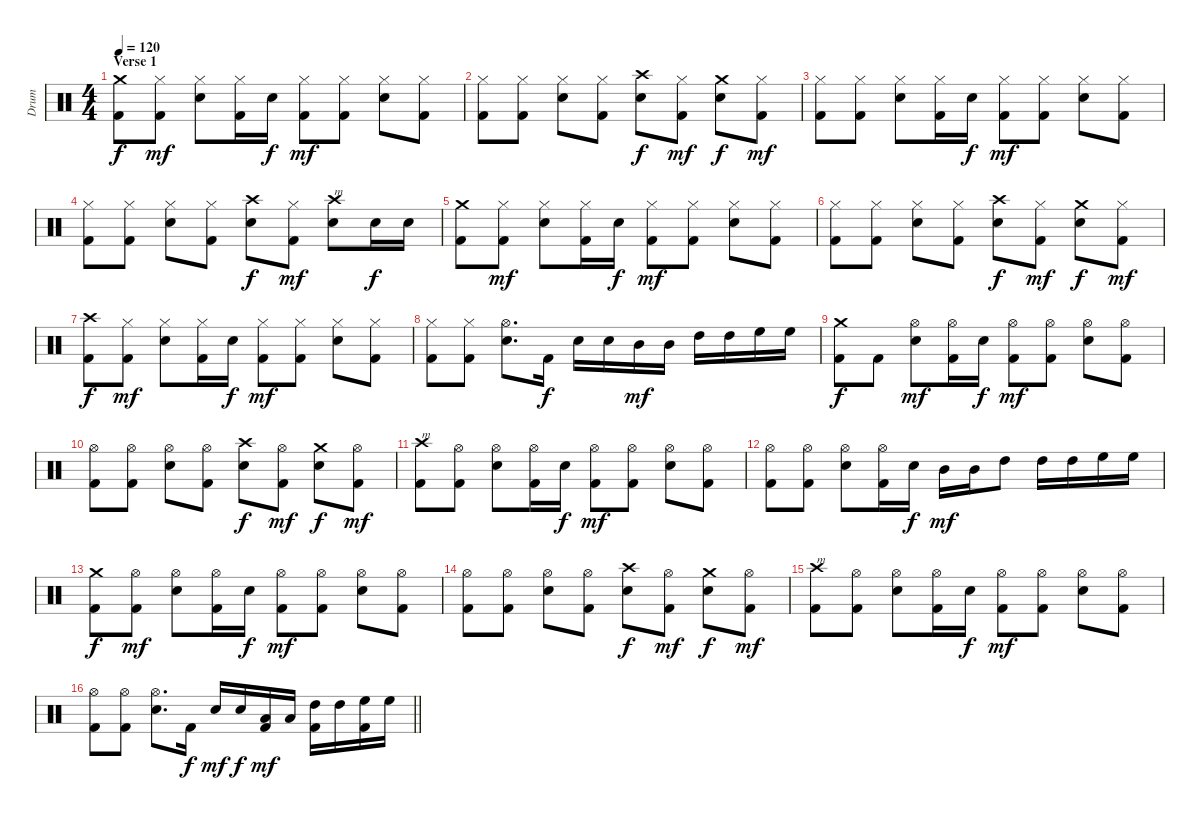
\track ("Drum" "Drum") {instrument percussion}
\staff {score}
\articulation defaults
\ts (4 4)
\section ("" "Verse 1")
\tempo 120
\clef neutral
\ks c
("Crash medium (hit)" "Kick (hit) 2").8{dy f} ("Hi-Hat (closed)" "Kick (hit) 2").8{dy mf} ("Hi-Hat (closed)" "Snare (hit) 2").8 ("Hi-Hat (closed)" "Kick (hit) 2").16 "Snare (hit) 2".16{dy f} ("Hi-Hat (closed)" "Kick (hit) 2").8{dy mf} ("Hi-Hat (closed)" "Kick (hit) 2").8 ("Hi-Hat (closed)" "Snare (hit) 2").8 ("Hi-Hat (closed)" "Kick (hit) 2").8 |
("Hi-Hat (closed)" "Kick (hit) 2").8 ("Hi-Hat (closed)" "Kick (hit) 2").8 ("Hi-Hat (closed)" "Snare (hit) 2").8 ("Hi-Hat (closed)" "Kick (hit) 2").8 ("Crash high (hit)" "Snare (hit) 2").8{dy f} ("Hi-Hat (closed)" "Kick (hit) 2").8{dy mf} ("Crash medium (hit)" "Snare (hit) 2").8{dy f} ("Hi-Hat (closed)" "Kick (hit) 2").8{dy mf} |
("Hi-Hat (closed)" "Kick (hit) 2").8 ("Hi-Hat (closed)" "Kick (hit) 2").8 ("Hi-Hat (closed)" "Snare (hit) 2").8 ("Hi-Hat (closed)" "Kick (hit) 2").16 "Snare (hit) 2".16{dy f} ("Hi-Hat (closed)" "Kick (hit) 2").8{dy mf} ("Hi-Hat (closed)" "Kick (hit) 2").8 ("Hi-Hat (closed)" "Snare (hit) 2").8 ("Hi-Hat (closed)" "Kick (hit) 2").8 |
("Hi-Hat (closed)" "Kick (hit) 2").8 ("Hi-Hat (closed)" "Kick (hit) 2").8 ("Hi-Hat (closed)" "Snare (hit) 2").8 ("Hi-Hat (closed)" "Kick (hit) 2").8 ("Crash high (hit)" "Snare (hit) 2").8{dy f} ("Hi-Hat (closed)" "Kick (hit) 2").8{dy mf} ("Crash high (hit)" "Snare (hit) 2").8{txt "m"} "Snare (hit) 2".16{dy f} "Snare (hit) 2".16 |
("Crash medium (hit)" "Kick (hit) 2").8 ("Hi-Hat (closed)" "Kick (hit) 2").8{dy mf} ("Hi-Hat (closed)" "Snare (hit) 2").8 ("Hi-Hat (closed)" "Kick (hit) 2").16 "Snare (hit) 2".16{dy f} ("Hi-Hat (closed)" "Kick (hit) 2").8{dy mf} ("Hi-Hat (closed)" "Kick (hit) 2").8 ("Hi-Hat (closed)" "Snare (hit) 2").8 ("Hi-Hat (closed)" "Kick (hit) 2").8 |
("Hi-Hat (closed)" "Kick (hit) 2").8 ("Hi-Hat (closed)" "Kick (hit) 2").8 ("Hi-Hat (closed)" "Snare (hit) 2").8 ("Hi-Hat (closed)" "Kick (hit) 2").8 ("Crash high (hit)" "Snare (hit) 2").8{dy f} ("Hi-Hat (closed)" "Kick (hit) 2").8{dy mf} ("Crash medium (hit)" "Snare (hit) 2").8{dy f} ("Hi-Hat (closed)" "Kick (hit) 2").8{dy mf} |
("Crash high (hit)" "Kick (hit) 2").8{dy f} ("Hi-Hat (closed)" "Kick (hit) 2").8{dy mf} ("Hi-Hat (closed)" "Snare (hit) 2").8 ("Hi-Hat (closed)" "Kick (hit) 2").16 "Snare (hit) 2".16{dy f} ("Hi-Hat (closed)" "Kick (hit) 2").8{dy mf} ("Hi-Hat (closed)" "Kick (hit) 2").8 ("Hi-Hat (closed)" "Snare (hit) 2").8 ("Hi-Hat (closed)" "Kick (hit) 2").8 |
("Hi-Hat (closed)" "Kick (hit) 2").8 ("Hi-Hat (closed)" "Kick (hit) 2").8 ("Hi-Hat (open)" "Snare (hit) 2").8{d} "Kick (hit) 2".16{dy f} "Snare (hit) 2".16 "Snare (hit) 2".16 "Mid Tom (hit)".16{dy mf} "Mid Tom (hit)".16 "High Tom (hit)".16 "High Tom (hit)".16 "High Floor Tom (hit)".16 "High Floor Tom (hit)".16 |
("Crash medium (hit)" "Kick (hit) 2").8{dy f} "Kick (hit) 2".8 ("Hi-Hat (open)" "Snare (hit) 2").8{dy mf} ("Hi-Hat (open)" "Kick (hit) 2").16 "Snare (hit) 2".16{dy f} ("Hi-Hat (open)" "Kick (hit) 2").8{dy mf} ("Hi-Hat (open)" "Kick (hit) 2").8 ("Hi-Hat (open)" "Snare (hit) 2").8 ("Hi-Hat (open)" "Kick (hit) 2").8 |
("Hi-Hat (open)" "Kick (hit) 2").8 ("Hi-Hat (open)" "Kick (hit) 2").8 ("Hi-Hat (open)" "Snare (hit) 2").8 ("Hi-Hat (open)" "Kick (hit) 2").8 ("Crash high (hit)" "Snare (hit) 2").8{dy f} ("Hi-Hat (open)" "Kick (hit) 2").8{dy mf} ("Crash medium (hit)" "Snare (hit) 2").8{dy f} ("Hi-Hat (open)" "Kick (hit) 2").8{dy mf} |
("Crash high (hit)" "Kick (hit) 2").8{txt "m"} ("Hi-Hat (open)" "Kick (hit) 2").8 ("Hi-Hat (open)" "Snare (hit) 2").8 ("Hi-Hat (open)" "Kick (hit) 2").16 "Snare (hit) 2".16{dy f} ("Hi-Hat (open)" "Kick (hit) 2").8{dy mf} ("Hi-Hat (open)" "Kick (hit) 2").8 ("Hi-Hat (open)" "Snare (hit) 2").8 ("Hi-Hat (open)" "Kick (hit) 2").8 |
("Hi-Hat (open)" "Kick (hit) 2").8 ("Hi-Hat (open)" "Kick (hit) 2").8 ("Hi-Hat (open)" "Snare (hit) 2").8 ("Hi-Hat (open)" "Kick (hit) 2").16 "Snare (hit) 2".16{dy f} "Mid Tom (hit)".16{dy mf} "Mid Tom (hit)".16 "High Tom (hit)".8 "High Tom (hit)".16 "High Tom (hit)".16 "High Floor Tom (hit)".16 "High Floor Tom (hit)".16 |
("Crash medium (hit)" "Kick (hit) 2").8{dy f} ("Hi-Hat (open)" "Kick (hit) 2").8{dy mf} ("Hi-Hat (open)" "Snare (hit) 2").8 ("Hi-Hat (open)" "Kick (hit) 2").16 "Snare (hit) 2".16{dy f} ("Hi-Hat (open)" "Kick (hit) 2").8{dy mf} ("Hi-Hat (open)" "Kick (hit) 2").8 ("Hi-Hat (open)" "Snare (hit) 2").8 ("Hi-Hat (open)" "Kick (hit) 2").8 |
("Hi-Hat (open)" "Kick (hit) 2").8 ("Hi-Hat (open)" "Kick (hit) 2").8 ("Hi-Hat (open)" "Snare (hit) 2").8 ("Hi-Hat (open)" "Kick (hit) 2").8 ("Crash high (hit)" "Snare (hit) 2").8{dy f} ("Hi-Hat (open)" "Kick (hit) 2").8{dy mf} ("Crash medium (hit)" "Snare (hit) 2").8{dy f} ("Hi-Hat (open)" "Kick (hit) 2").8{dy mf} |
("Crash high (hit)" "Kick (hit) 2").8{txt "m"} ("Hi-Hat (open)" "Kick (hit) 2").8 ("Hi-Hat (open)" "Snare (hit) 2").8 ("Hi-Hat (open)" "Kick (hit) 2").16 "Snare (hit) 2".16{dy f} ("Hi-Hat (open)" "Kick (hit) 2").8{dy mf} ("Hi-Hat (open)" "Kick (hit) 2").8 ("Hi-Hat (open)" "Snare (hit) 2").8 ("Hi-Hat (open)" "Kick (hit) 2").8 |
\barLineRight lightlight
("Hi-Hat (open)" "Kick (hit) 2").8 ("Hi-Hat (open)" "Kick (hit) 2").8 ("Hi-Hat (open)" "Snare (hit) 2").8{d} "Kick (hit) 2".16{dy f} "Snare (hit) 2".16{dy mf} "Snare (hit) 2".16{dy f} ("Low Tom (hit)" "Kick (hit) 2").16{dy mf} "Low Tom (hit)".16 ("High Tom (hit)" "Kick (hit) 2").16 "High Tom (hit)".16 ("High Floor Tom (hit)" "Kick (hit) 2").16 "High Floor Tom (hit)".16
